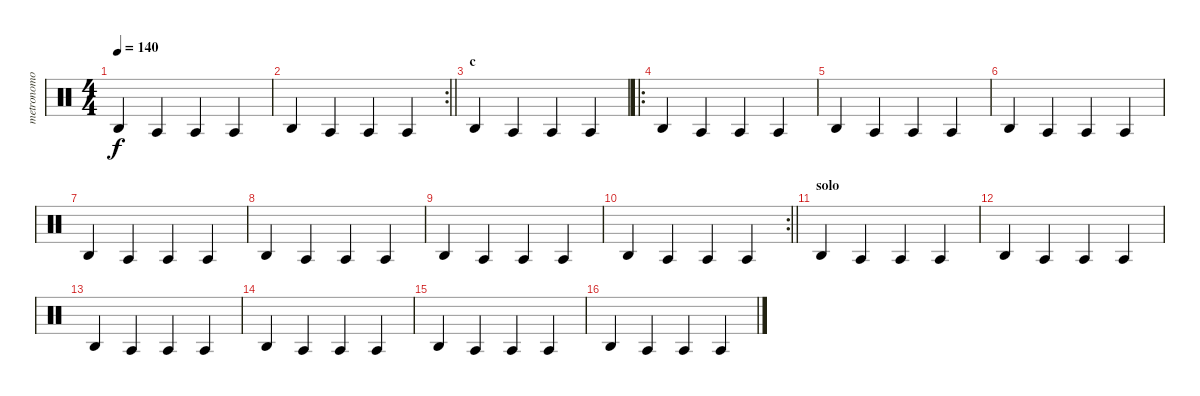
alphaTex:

\track ("metronomo" "metronomo") {mute instrument percussion}
\staff {score}
\articulation defaults
\ts (4 4)
\tempo 140
\clef neutral
\ks c "Agogo high (hit)".4{dy f} "Agogo tow (hit)".4 "Agogo tow (hit)".4 "Agogo tow (hit)".4
|
\rc 2
\barLineRight lightlight "Agogo high (hit)".4 "Agogo tow (hit)".4 "Agogo tow (hit)".4 "Agogo tow (hit)".4
|
\section ("" "c")
"Agogo high (hit)".4 "Agogo tow (hit)".4 "Agogo tow (hit)".4 "Agogo tow (hit)".4 |
\ro "Agogo high (hit)".4 "Agogo tow (hit)".4 "Agogo tow (hit)".4 "Agogo tow (hit)".4
|
"Agogo high (hit)".4 "Agogo tow (hit)".4 "Agogo tow (hit)".4 "Agogo tow (hit)".4 |
"Agogo high (hit)".4 "Agogo tow (hit)".4 "Agogo tow (hit)".4 "Agogo tow (hit)".4 |
"Agogo high (hit)".4 "Agogo tow (hit)".4 "Agogo tow (hit)".4 "Agogo tow (hit)".4 |
"Agogo high (hit)".4 "Agogo tow (hit)".4 "Agogo tow (hit)".4 "Agogo tow (hit)".4 |
"Agogo high (hit)".4 "Agogo tow (hit)".4 "Agogo tow (hit)".4 "Agogo tow (hit)".4 |
\rc 2
\barLineRight lightlight "Agogo high (hit)".4 "Agogo tow (hit)".4 "Agogo tow (hit)".4 "Agogo tow (hit)".4
|
\section ("" "solo")
"Agogo high (hit)".4 "Agogo tow (hit)".4 "Agogo tow (hit)".4 "Agogo tow (hit)".4 |
"Agogo high (hit)".4 "Agogo tow (hit)".4 "Agogo tow (hit)".4 "Agogo tow (hit)".4 |
"Agogo high (hit)".4 "Agogo tow (hit)".4 "Agogo tow (hit)".4 "Agogo tow (hit)".4 |
"Agogo high (hit)".4 "Agogo tow (hit)".4 "Agogo tow (hit)".4 "Agogo tow (hit)".4 |
"Agogo high (hit)".4 "Agogo tow (hit)".4 "Agogo tow (hit)".4 "Agogo tow (hit)".4 |
"Agogo high (hit)".4 "Agogo tow (hit)".4 "Agogo tow (hit)".4 "Agogo tow (hit)".4
